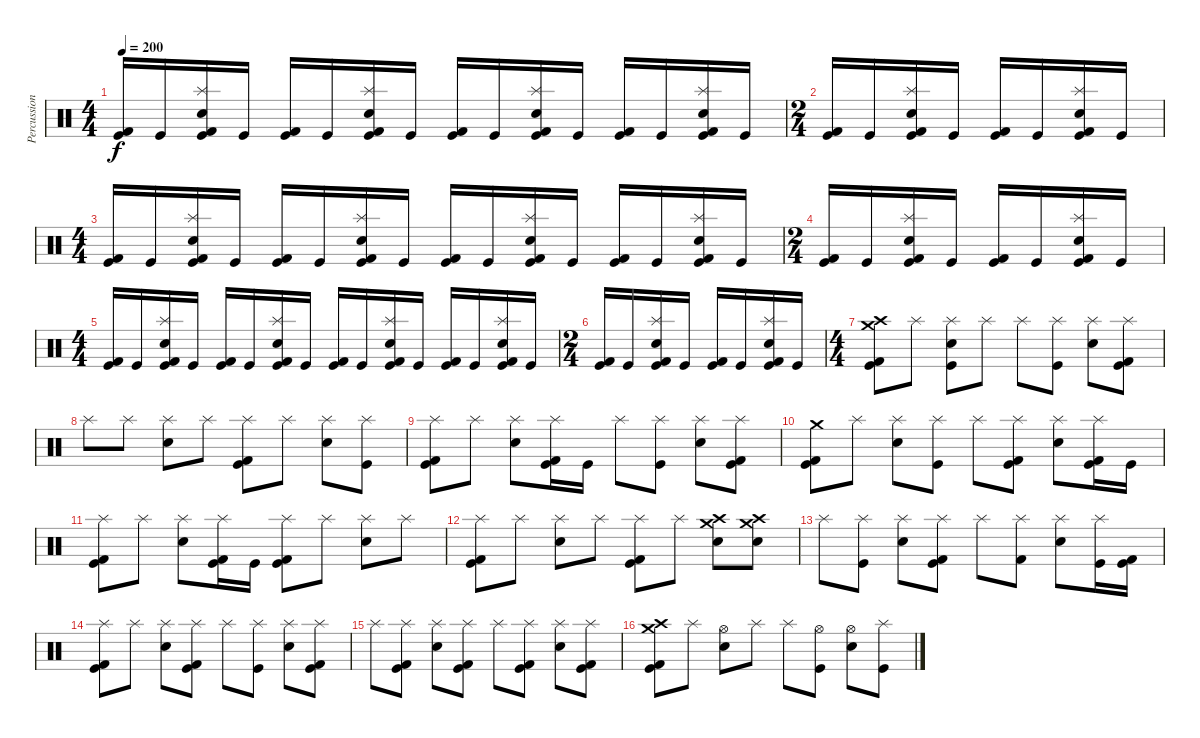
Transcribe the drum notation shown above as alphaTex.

\track ("Percussion" "Percussion") {instrument percussion}
\staff {score}
\articulation defaults
\ts (4 4)
\tempo 200
\clef neutral
\ks c
("Kick (hit) 2" "Kick (hit)").16{dy f} "Kick (hit)".16 ("Splash (hit)" "Snare (hit) 2" "Kick (hit) 2" "Kick (hit)").16 "Kick (hit)".16 ("Kick (hit) 2" "Kick (hit)").16 "Kick (hit)".16 ("Splash (hit)" "Snare (hit) 2" "Kick (hit) 2" "Kick (hit)").16 "Kick (hit)".16 ("Kick (hit) 2" "Kick (hit)").16 "Kick (hit)".16 ("Splash (hit)" "Snare (hit) 2" "Kick (hit) 2" "Kick (hit)").16 "Kick (hit)".16 ("Kick (hit) 2" "Kick (hit)").16 "Kick (hit)".16 ("Splash (hit)" "Snare (hit) 2" "Kick (hit) 2" "Kick (hit)").16 "Kick (hit)".16 |
\ts (2 4)
("Kick (hit) 2" "Kick (hit)").16 "Kick (hit)".16 ("Splash (hit)" "Snare (hit) 2" "Kick (hit) 2" "Kick (hit)").16 "Kick (hit)".16 ("Kick (hit) 2" "Kick (hit)").16 "Kick (hit)".16 ("Splash (hit)" "Snare (hit) 2" "Kick (hit) 2" "Kick (hit)").16 "Kick (hit)".16 |
\ts (4 4)
("Kick (hit) 2" "Kick (hit)").16 "Kick (hit)".16 ("Splash (hit)" "Snare (hit) 2" "Kick (hit) 2" "Kick (hit)").16 "Kick (hit)".16 ("Kick (hit) 2" "Kick (hit)").16 "Kick (hit)".16 ("Splash (hit)" "Snare (hit) 2" "Kick (hit) 2" "Kick (hit)").16 "Kick (hit)".16 ("Kick (hit) 2" "Kick (hit)").16 "Kick (hit)".16 ("Splash (hit)" "Snare (hit) 2" "Kick (hit) 2" "Kick (hit)").16 "Kick (hit)".16 ("Kick (hit) 2" "Kick (hit)").16 "Kick (hit)".16 ("Splash (hit)" "Snare (hit) 2" "Kick (hit) 2" "Kick (hit)").16 "Kick (hit)".16 |
\ts (2 4)
("Kick (hit) 2" "Kick (hit)").16 "Kick (hit)".16 ("Splash (hit)" "Snare (hit) 2" "Kick (hit) 2" "Kick (hit)").16 "Kick (hit)".16 ("Kick (hit) 2" "Kick (hit)").16 "Kick (hit)".16 ("Splash (hit)" "Snare (hit) 2" "Kick (hit) 2" "Kick (hit)").16 "Kick (hit)".16 |
\ts (4 4)
("Kick (hit) 2" "Kick (hit)").16 "Kick (hit)".16 ("Splash (hit)" "Snare (hit) 2" "Kick (hit) 2" "Kick (hit)").16 "Kick (hit)".16 ("Kick (hit) 2" "Kick (hit)").16 "Kick (hit)".16 ("Splash (hit)" "Snare (hit) 2" "Kick (hit) 2" "Kick (hit)").16 "Kick (hit)".16 ("Kick (hit) 2" "Kick (hit)").16 "Kick (hit)".16 ("Splash (hit)" "Snare (hit) 2" "Kick (hit) 2" "Kick (hit)").16 "Kick (hit)".16 ("Kick (hit) 2" "Kick (hit)").16 "Kick (hit)".16 ("Splash (hit)" "Snare (hit) 2" "Kick (hit) 2" "Kick (hit)").16 "Kick (hit)".16 |
\ts (2 4)
("Kick (hit) 2" "Kick (hit)").16 "Kick (hit)".16 ("Splash (hit)" "Snare (hit) 2" "Kick (hit) 2" "Kick (hit)").16 "Kick (hit)".16 ("Kick (hit) 2" "Kick (hit)").16 "Kick (hit)".16 ("Splash (hit)" "Snare (hit) 2" "Kick (hit) 2" "Kick (hit)").16 "Kick (hit)".16 |
\ts (4 4)
("Crash high (hit)" "Crash medium (hit)" "Kick (hit) 2" "Kick (hit)").8 "Splash (hit)".8 ("Splash (hit)" "Snare (hit) 2" "Kick (hit)").8 "Splash (hit)".8 "Splash (hit)".8 ("Splash (hit)" "Kick (hit)").8 ("Splash (hit)" "Snare (hit) 2").8 ("Splash (hit)" "Kick (hit) 2" "Kick (hit)").8 |
"Splash (hit)".8 "Splash (hit)".8 ("Splash (hit)" "Snare (hit) 2").8 "Splash (hit)".8 ("Splash (hit)" "Kick (hit) 2" "Kick (hit)").8 "Splash (hit)".8 ("Splash (hit)" "Snare (hit) 2").8 ("Splash (hit)" "Kick (hit)").8 |
("Splash (hit)" "Kick (hit) 2" "Kick (hit)").8 "Splash (hit)".8 ("Splash (hit)" "Snare (hit) 2").8 ("Splash (hit)" "Kick (hit) 2" "Kick (hit)").16 "Kick (hit)".16 "Splash (hit)".8 ("Splash (hit)" "Kick (hit)").8 ("Splash (hit)" "Snare (hit) 2").8 ("Splash (hit)" "Kick (hit) 2" "Kick (hit)").8 |
("Crash medium (hit)" "Kick (hit) 2" "Kick (hit)").8 "Splash (hit)".8 ("Splash (hit)" "Snare (hit) 2").8 ("Splash (hit)" "Kick (hit)").8 "Splash (hit)".8 ("Splash (hit)" "Kick (hit) 2" "Kick (hit)").8 ("Splash (hit)" "Snare (hit) 2").8 ("Splash (hit)" "Kick (hit) 2" "Kick (hit)").16 "Kick (hit)".16 |
("Splash (hit)" "Kick (hit) 2" "Kick (hit)").8 "Splash (hit)".8 ("Splash (hit)" "Snare (hit) 2").8 ("Splash (hit)" "Kick (hit) 2" "Kick (hit)").16 "Kick (hit)".16 ("Splash (hit)" "Kick (hit) 2" "Kick (hit)").8 "Splash (hit)".8 ("Splash (hit)" "Snare (hit) 2").8 "Splash (hit)".8 |
("Splash (hit)" "Kick (hit) 2" "Kick (hit)").8 "Splash (hit)".8 ("Splash (hit)" "Snare (hit) 2").8 "Splash (hit)".8 ("Splash (hit)" "Kick (hit) 2" "Kick (hit)").8 "Splash (hit)".8 ("Crash high (hit)" "Crash medium (hit)" "Snare (hit) 2").8 ("Crash high (hit)" "Crash medium (hit)" "Snare (hit) 2").8 |
"Splash (hit)".8 ("Splash (hit)" "Kick (hit)").8 ("Splash (hit)" "Snare (hit) 2").8 ("Splash (hit)" "Kick (hit) 2" "Kick (hit)").8 "Splash (hit)".8 ("Splash (hit)" "Kick (hit) 2").8 ("Splash (hit)" "Snare (hit) 2").8 ("Splash (hit)" "Kick (hit)").16 ("Kick (hit) 2" "Kick (hit)").16 |
("Splash (hit)" "Kick (hit) 2" "Kick (hit)").8 "Splash (hit)".8 ("Splash (hit)" "Snare (hit) 2").8 ("Splash (hit)" "Kick (hit) 2" "Kick (hit)").8 "Splash (hit)".8 ("Splash (hit)" "Kick (hit)").8 ("Splash (hit)" "Snare (hit) 2").8 ("Splash (hit)" "Kick (hit) 2" "Kick (hit)").8 |
"Splash (hit)".8 ("Splash (hit)" "Kick (hit) 2" "Kick (hit)").8 ("Splash (hit)" "Snare (hit) 2").8 ("Splash (hit)" "Kick (hit) 2" "Kick (hit)").8 "Splash (hit)".8 ("Splash (hit)" "Kick (hit) 2" "Kick (hit)").8 ("Splash (hit)" "Snare (hit) 2").8 ("Splash (hit)" "Kick (hit) 2" "Kick (hit)").8 |
("Crash high (hit)" "Crash medium (hit)" "Kick (hit) 2" "Kick (hit)").8 "Splash (hit)".8 ("Hi-Hat (open)" "Snare (hit) 2").8 "Splash (hit)".8 "Splash (hit)".8 ("Hi-Hat (open)" "Kick (hit)").8 ("Hi-Hat (open)" "Snare (hit) 2").8 ("Splash (hit)" "Kick (hit)").8
